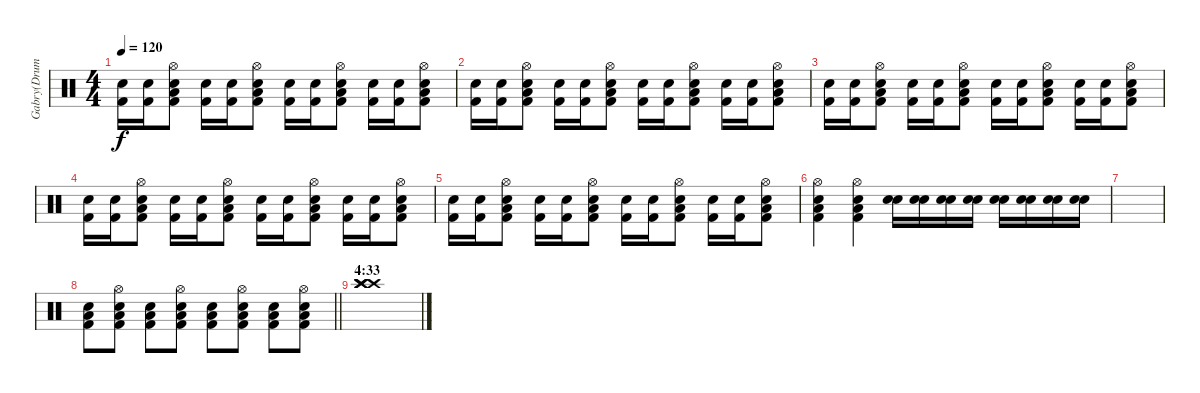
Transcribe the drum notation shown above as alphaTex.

\track ("Gabry(Drums)" "Gabry(Drum") {instrument percussion}
\staff {score}
\articulation defaults
\ts (4 4)
\tempo 120
\clef neutral
\ks c
("Kick (hit) 2" "Electric Snare (hit)").16{dy f} ("Kick (hit) 2" "Electric Snare (hit)").16 ("Kick (hit) 2" "Electric Snare (hit)" "Low Floor Tom (hit)" "Hi-Hat (open)").8 ("Kick (hit) 2" "Electric Snare (hit)").16 ("Kick (hit) 2" "Electric Snare (hit)").16 ("Kick (hit) 2" "Electric Snare (hit)" "Low Floor Tom (hit)" "Hi-Hat (open)").8 ("Kick (hit) 2" "Electric Snare (hit)").16 ("Kick (hit) 2" "Electric Snare (hit)").16 ("Kick (hit) 2" "Electric Snare (hit)" "Low Floor Tom (hit)" "Hi-Hat (open)").8 ("Kick (hit) 2" "Electric Snare (hit)").16 ("Kick (hit) 2" "Electric Snare (hit)").16 ("Kick (hit) 2" "Electric Snare (hit)" "Low Floor Tom (hit)" "Hi-Hat (open)").8 |
("Kick (hit) 2" "Electric Snare (hit)").16 ("Kick (hit) 2" "Electric Snare (hit)").16 ("Kick (hit) 2" "Electric Snare (hit)" "Low Floor Tom (hit)" "Hi-Hat (open)").8 ("Kick (hit) 2" "Electric Snare (hit)").16 ("Kick (hit) 2" "Electric Snare (hit)").16 ("Kick (hit) 2" "Electric Snare (hit)" "Low Floor Tom (hit)" "Hi-Hat (open)").8 ("Kick (hit) 2" "Electric Snare (hit)").16 ("Kick (hit) 2" "Electric Snare (hit)").16 ("Kick (hit) 2" "Electric Snare (hit)" "Low Floor Tom (hit)" "Hi-Hat (open)").8 ("Kick (hit) 2" "Electric Snare (hit)").16 ("Kick (hit) 2" "Electric Snare (hit)").16 ("Kick (hit) 2" "Electric Snare (hit)" "Low Floor Tom (hit)" "Hi-Hat (open)").8 |
("Kick (hit) 2" "Electric Snare (hit)").16 ("Kick (hit) 2" "Electric Snare (hit)").16 ("Kick (hit) 2" "Electric Snare (hit)" "Low Floor Tom (hit)" "Hi-Hat (open)").8 ("Kick (hit) 2" "Electric Snare (hit)").16 ("Kick (hit) 2" "Electric Snare (hit)").16 ("Kick (hit) 2" "Electric Snare (hit)" "Low Floor Tom (hit)" "Hi-Hat (open)").8 ("Kick (hit) 2" "Electric Snare (hit)").16 ("Kick (hit) 2" "Electric Snare (hit)").16 ("Kick (hit) 2" "Electric Snare (hit)" "Low Floor Tom (hit)" "Hi-Hat (open)").8 ("Kick (hit) 2" "Electric Snare (hit)").16 ("Kick (hit) 2" "Electric Snare (hit)").16 ("Kick (hit) 2" "Electric Snare (hit)" "Low Floor Tom (hit)" "Hi-Hat (open)").8 |
("Kick (hit) 2" "Electric Snare (hit)").16 ("Kick (hit) 2" "Electric Snare (hit)").16 ("Kick (hit) 2" "Electric Snare (hit)" "Low Floor Tom (hit)" "Hi-Hat (open)").8 ("Kick (hit) 2" "Electric Snare (hit)").16 ("Kick (hit) 2" "Electric Snare (hit)").16 ("Kick (hit) 2" "Electric Snare (hit)" "Low Floor Tom (hit)" "Hi-Hat (open)").8 ("Kick (hit) 2" "Electric Snare (hit)").16 ("Kick (hit) 2" "Electric Snare (hit)").16 ("Kick (hit) 2" "Electric Snare (hit)" "Low Floor Tom (hit)" "Hi-Hat (open)").8 ("Kick (hit) 2" "Electric Snare (hit)").16 ("Kick (hit) 2" "Electric Snare (hit)").16 ("Kick (hit) 2" "Electric Snare (hit)" "Low Floor Tom (hit)" "Hi-Hat (open)").8 |
("Kick (hit) 2" "Electric Snare (hit)").16 ("Kick (hit) 2" "Electric Snare (hit)").16 ("Kick (hit) 2" "Electric Snare (hit)" "Low Floor Tom (hit)" "Hi-Hat (open)").8 ("Kick (hit) 2" "Electric Snare (hit)").16 ("Kick (hit) 2" "Electric Snare (hit)").16 ("Kick (hit) 2" "Electric Snare (hit)" "Low Floor Tom (hit)" "Hi-Hat (open)").8 ("Kick (hit) 2" "Electric Snare (hit)").16 ("Kick (hit) 2" "Electric Snare (hit)").16 ("Kick (hit) 2" "Electric Snare (hit)" "Low Floor Tom (hit)" "Hi-Hat (open)").8 ("Kick (hit) 2" "Electric Snare (hit)").16 ("Kick (hit) 2" "Electric Snare (hit)").16 ("Kick (hit) 2" "Electric Snare (hit)" "Low Floor Tom (hit)" "Hi-Hat (open)").8 |
("Kick (hit) 2" "Electric Snare (hit)" "Low Floor Tom (hit)" "Hi-Hat (open)").4 ("Kick (hit) 2" "Electric Snare (hit)" "Low Floor Tom (hit)" "Hi-Hat (open)").4 ("Electric Snare (hit)" "Electric Snare (hit)").16 ("Electric Snare (hit)" "Electric Snare (hit)").16 ("Electric Snare (hit)" "Electric Snare (hit)").16 ("Electric Snare (hit)" "Electric Snare (hit)").16 ("Electric Snare (hit)" "Electric Snare (hit)").16 ("Electric Snare (hit)" "Electric Snare (hit)").16 ("Electric Snare (hit)" "Electric Snare (hit)").16 ("Electric Snare (hit)" "Electric Snare (hit)").16 |
|
\barLineRight lightlight
("Kick (hit) 2" "Electric Snare (hit)" "Low Floor Tom (hit)").8 ("Kick (hit) 2" "Electric Snare (hit)" "Low Floor Tom (hit)" "Hi-Hat (open)").8 ("Kick (hit) 2" "Electric Snare (hit)" "Low Floor Tom (hit)").8 ("Kick (hit) 2" "Electric Snare (hit)" "Low Floor Tom (hit)" "Hi-Hat (open)").8 ("Kick (hit) 2" "Electric Snare (hit)" "Low Floor Tom (hit)").8 ("Kick (hit) 2" "Electric Snare (hit)" "Low Floor Tom (hit)" "Hi-Hat (open)").8 ("Kick (hit) 2" "Electric Snare (hit)" "Low Floor Tom (hit)").8 ("Kick (hit) 2" "Electric Snare (hit)" "Low Floor Tom (hit)" "Hi-Hat (open)").8 |
\section ("" "4:33")
("Crash high (hit)" "Crash high (hit)" "Crash high (hit)" "Crash high (hit)").1
